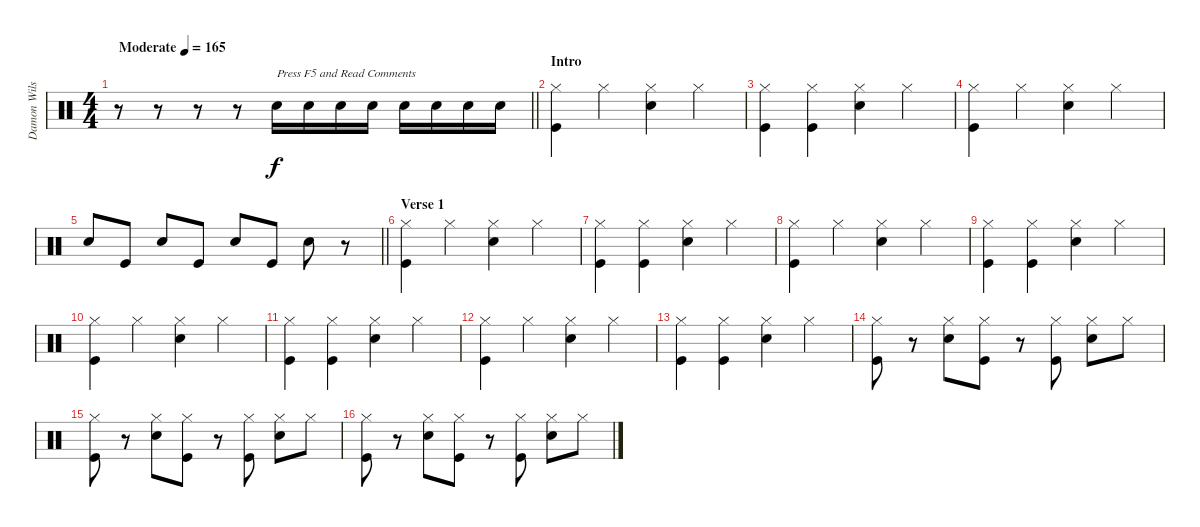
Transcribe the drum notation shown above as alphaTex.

\track ("Damon Wilson" "Damon Wils") {instrument percussion}
\staff {score}
\articulation defaults
\ts (4 4)
\tempo (165 "Moderate")
\clef neutral
\barLineRight lightlight
\ks c
r.8{dy f} r.8 r.8 r.8 "Snare (hit) 2".16{txt "Press F5 and Read Comments"} "Snare (hit) 2".16 "Snare (hit) 2".16 "Snare (hit) 2".16 "Snare (hit) 2".16 "Snare (hit) 2".16 "Snare (hit) 2".16 "Snare (hit) 2".16 |
\section ("" "Intro")
("Hi-Hat (closed)" "Kick (hit)").4 "Hi-Hat (closed)".4 ("Hi-Hat (closed)" "Snare (hit) 2").4 "Hi-Hat (closed)".4 |
("Hi-Hat (closed)" "Kick (hit)").4 ("Hi-Hat (closed)" "Kick (hit)").4 ("Hi-Hat (closed)" "Snare (hit) 2").4 "Hi-Hat (closed)".4 |
("Hi-Hat (closed)" "Kick (hit)").4 "Hi-Hat (closed)".4 ("Hi-Hat (closed)" "Snare (hit) 2").4 "Hi-Hat (closed)".4 |
\barLineRight lightlight "Snare (hit) 2".8 "Kick (hit)".8 "Snare (hit) 2".8 "Kick (hit)".8 "Snare (hit) 2".8 "Kick (hit)".8 "Snare (hit) 2".8
r.8 |
\section ("" "Verse 1")
("Hi-Hat (closed)" "Kick (hit)").4 "Hi-Hat (closed)".4 ("Hi-Hat (closed)" "Snare (hit) 2").4 "Hi-Hat (closed)".4 |
("Hi-Hat (closed)" "Kick (hit)").4 ("Hi-Hat (closed)" "Kick (hit)").4 ("Hi-Hat (closed)" "Snare (hit) 2").4 "Hi-Hat (closed)".4 |
("Hi-Hat (closed)" "Kick (hit)").4 "Hi-Hat (closed)".4 ("Hi-Hat (closed)" "Snare (hit) 2").4 "Hi-Hat (closed)".4 |
("Hi-Hat (closed)" "Kick (hit)").4 ("Hi-Hat (closed)" "Kick (hit)").4 ("Hi-Hat (closed)" "Snare (hit) 2").4 "Hi-Hat (closed)".4 |
("Hi-Hat (closed)" "Kick (hit)").4 "Hi-Hat (closed)".4 ("Hi-Hat (closed)" "Snare (hit) 2").4 "Hi-Hat (closed)".4 |
("Hi-Hat (closed)" "Kick (hit)").4 ("Hi-Hat (closed)" "Kick (hit)").4 ("Hi-Hat (closed)" "Snare (hit) 2").4 "Hi-Hat (closed)".4 |
("Hi-Hat (closed)" "Kick (hit)").4 "Hi-Hat (closed)".4 ("Hi-Hat (closed)" "Snare (hit) 2").4 "Hi-Hat (closed)".4 |
("Hi-Hat (closed)" "Kick (hit)").4 ("Hi-Hat (closed)" "Kick (hit)").4 ("Hi-Hat (closed)" "Snare (hit) 2").4 "Hi-Hat (closed)".4 |
("Hi-Hat (closed)" "Kick (hit)").8 r.8 ("Hi-Hat (closed)" "Snare (hit) 2").8 ("Hi-Hat (closed)" "Kick (hit)").8 r.8 ("Hi-Hat (closed)" "Kick (hit)").8 ("Hi-Hat (closed)" "Snare (hit) 2").8 "Hi-Hat (closed)".8 |
("Hi-Hat (closed)" "Kick (hit)").8 r.8 ("Hi-Hat (closed)" "Snare (hit) 2").8 ("Hi-Hat (closed)" "Kick (hit)").8 r.8 ("Hi-Hat (closed)" "Kick (hit)").8 ("Hi-Hat (closed)" "Snare (hit) 2").8 "Hi-Hat (closed)".8 |
("Hi-Hat (closed)" "Kick (hit)").8 r.8 ("Hi-Hat (closed)" "Snare (hit) 2").8 ("Hi-Hat (closed)" "Kick (hit)").8 r.8 ("Hi-Hat (closed)" "Kick (hit)").8 ("Hi-Hat (closed)" "Snare (hit) 2").8 "Hi-Hat (closed)".8
